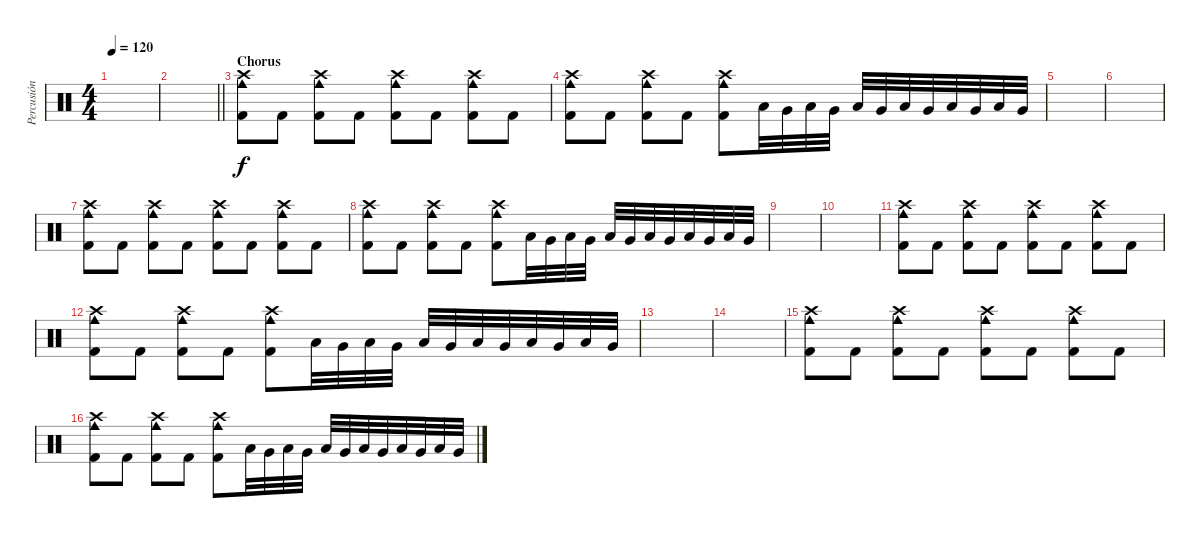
\track ("Percusión" "Percusión") {instrument percussion}
\staff {score}
\articulation defaults
\ts (4 4)
\tempo 120
\clef neutral
\ks c
|
\barLineRight lightlight
|
\section ("" "Chorus")
("Crash high (hit)" "Cowbell medium (hit)" "Kick (hit) 2").8 "Kick (hit) 2".8 ("Crash high (hit)" "Cowbell medium (hit)" "Kick (hit) 2").8 "Kick (hit) 2".8 ("Crash high (hit)" "Cowbell medium (hit)" "Kick (hit) 2").8 "Kick (hit) 2".8 ("Crash high (hit)" "Cowbell medium (hit)" "Kick (hit) 2").8 "Kick (hit) 2".8 |
("Crash high (hit)" "Cowbell medium (hit)" "Kick (hit) 2").8 "Kick (hit) 2".8 ("Crash high (hit)" "Cowbell medium (hit)" "Kick (hit) 2").8 "Kick (hit) 2".8 ("Crash high (hit)" "Cowbell medium (hit)" "Kick (hit) 2").8 "Low Floor Tom (hit)".32 "Very Low Tom (hit)".32 "Low Floor Tom (hit)".32 "Very Low Tom (hit)".32 "Low Floor Tom (hit)".32 "Very Low Tom (hit)".32 "Low Floor Tom (hit)".32 "Very Low Tom (hit)".32 "Low Floor Tom (hit)".32 "Very Low Tom (hit)".32 "Low Floor Tom (hit)".32 "Very Low Tom (hit)".32 |
|
|
("Crash high (hit)" "Cowbell medium (hit)" "Kick (hit) 2").8 "Kick (hit) 2".8 ("Crash high (hit)" "Cowbell medium (hit)" "Kick (hit) 2").8 "Kick (hit) 2".8 ("Crash high (hit)" "Cowbell medium (hit)" "Kick (hit) 2").8 "Kick (hit) 2".8 ("Crash high (hit)" "Cowbell medium (hit)" "Kick (hit) 2").8 "Kick (hit) 2".8 |
("Crash high (hit)" "Cowbell medium (hit)" "Kick (hit) 2").8 "Kick (hit) 2".8 ("Crash high (hit)" "Cowbell medium (hit)" "Kick (hit) 2").8 "Kick (hit) 2".8 ("Crash high (hit)" "Cowbell medium (hit)" "Kick (hit) 2").8 "Low Floor Tom (hit)".32 "Very Low Tom (hit)".32 "Low Floor Tom (hit)".32 "Very Low Tom (hit)".32 "Low Floor Tom (hit)".32 "Very Low Tom (hit)".32 "Low Floor Tom (hit)".32 "Very Low Tom (hit)".32 "Low Floor Tom (hit)".32 "Very Low Tom (hit)".32 "Low Floor Tom (hit)".32 "Very Low Tom (hit)".32 |
|
|
("Crash high (hit)" "Cowbell medium (hit)" "Kick (hit) 2").8 "Kick (hit) 2".8 ("Crash high (hit)" "Cowbell medium (hit)" "Kick (hit) 2").8 "Kick (hit) 2".8 ("Crash high (hit)" "Cowbell medium (hit)" "Kick (hit) 2").8 "Kick (hit) 2".8 ("Crash high (hit)" "Cowbell medium (hit)" "Kick (hit) 2").8 "Kick (hit) 2".8 |
("Crash high (hit)" "Cowbell medium (hit)" "Kick (hit) 2").8 "Kick (hit) 2".8 ("Crash high (hit)" "Cowbell medium (hit)" "Kick (hit) 2").8 "Kick (hit) 2".8 ("Crash high (hit)" "Cowbell medium (hit)" "Kick (hit) 2").8 "Low Floor Tom (hit)".32 "Very Low Tom (hit)".32 "Low Floor Tom (hit)".32 "Very Low Tom (hit)".32 "Low Floor Tom (hit)".32 "Very Low Tom (hit)".32 "Low Floor Tom (hit)".32 "Very Low Tom (hit)".32 "Low Floor Tom (hit)".32 "Very Low Tom (hit)".32 "Low Floor Tom (hit)".32 "Very Low Tom (hit)".32 |
|
|
("Crash high (hit)" "Cowbell medium (hit)" "Kick (hit) 2").8 "Kick (hit) 2".8 ("Crash high (hit)" "Cowbell medium (hit)" "Kick (hit) 2").8 "Kick (hit) 2".8 ("Crash high (hit)" "Cowbell medium (hit)" "Kick (hit) 2").8 "Kick (hit) 2".8 ("Crash high (hit)" "Cowbell medium (hit)" "Kick (hit) 2").8 "Kick (hit) 2".8 |
("Crash high (hit)" "Cowbell medium (hit)" "Kick (hit) 2").8 "Kick (hit) 2".8 ("Crash high (hit)" "Cowbell medium (hit)" "Kick (hit) 2").8 "Kick (hit) 2".8 ("Crash high (hit)" "Cowbell medium (hit)" "Kick (hit) 2").8 "Low Floor Tom (hit)".32 "Very Low Tom (hit)".32 "Low Floor Tom (hit)".32 "Very Low Tom (hit)".32 "Low Floor Tom (hit)".32 "Very Low Tom (hit)".32 "Low Floor Tom (hit)".32 "Very Low Tom (hit)".32 "Low Floor Tom (hit)".32 "Very Low Tom (hit)".32 "Low Floor Tom (hit)".32 "Very Low Tom (hit)".32
